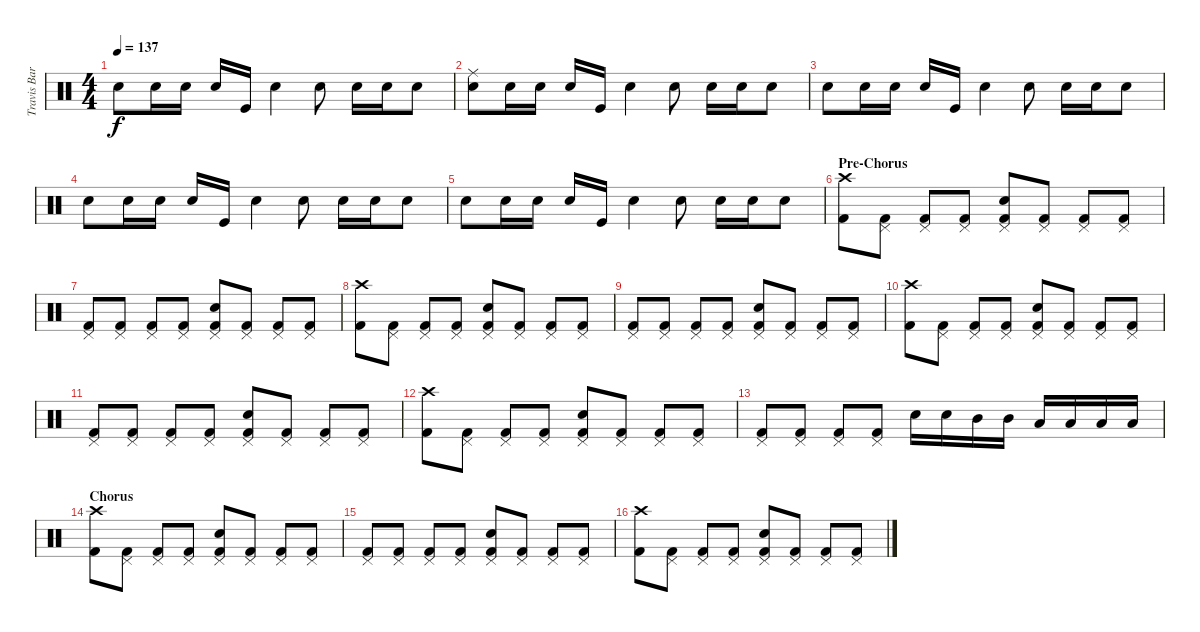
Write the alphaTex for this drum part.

\track ("Travis Barker" "Travis Bar") {instrument percussion}
\staff {score}
\articulation defaults
\ts (4 4)
\tempo 137
\clef neutral
\ks c "Snare (hit) 2".8{dy f} "Snare (hit) 2".16 "Snare (hit) 2".16 "Snare (hit) 2".16 "Kick (hit)".16 "Snare (hit) 2".4 "Snare (hit) 2".8 "Snare (hit) 2".16 "Snare (hit) 2".16 "Snare (hit) 2".8
|
("Ride (middle)" "Snare (hit) 2").8 "Snare (hit) 2".16 "Snare (hit) 2".16 "Snare (hit) 2".16 "Kick (hit)".16 "Snare (hit) 2".4 "Snare (hit) 2".8 "Snare (hit) 2".16 "Snare (hit) 2".16 "Snare (hit) 2".8 |
"Snare (hit) 2".8 "Snare (hit) 2".16 "Snare (hit) 2".16 "Snare (hit) 2".16 "Kick (hit)".16 "Snare (hit) 2".4 "Snare (hit) 2".8 "Snare (hit) 2".16 "Snare (hit) 2".16 "Snare (hit) 2".8 |
"Snare (hit) 2".8 "Snare (hit) 2".16 "Snare (hit) 2".16 "Snare (hit) 2".16 "Kick (hit)".16 "Snare (hit) 2".4 "Snare (hit) 2".8 "Snare (hit) 2".16 "Snare (hit) 2".16 "Snare (hit) 2".8 |
"Snare (hit) 2".8 "Snare (hit) 2".16 "Snare (hit) 2".16 "Snare (hit) 2".16 "Kick (hit)".16 "Snare (hit) 2".4 "Snare (hit) 2".8 "Snare (hit) 2".16 "Snare (hit) 2".16 "Snare (hit) 2".8 |
\section ("" "Pre-Chorus")
("Crash high (hit)" "Kick (hit) 2").8 ("Pedal Hi-Hat (hit)" "Kick (hit) 2").8 ("Pedal Hi-Hat (hit)" "Kick (hit) 2").8 ("Pedal Hi-Hat (hit)" "Kick (hit) 2").8 ("Pedal Hi-Hat (hit)" "Snare (hit) 2" "Kick (hit) 2").8 ("Pedal Hi-Hat (hit)" "Kick (hit) 2").8 ("Pedal Hi-Hat (hit)" "Kick (hit) 2").8 ("Pedal Hi-Hat (hit)" "Kick (hit) 2").8 |
("Pedal Hi-Hat (hit)" "Kick (hit) 2").8 ("Pedal Hi-Hat (hit)" "Kick (hit) 2").8 ("Pedal Hi-Hat (hit)" "Kick (hit) 2").8 ("Pedal Hi-Hat (hit)" "Kick (hit) 2").8 ("Pedal Hi-Hat (hit)" "Snare (hit) 2" "Kick (hit) 2").8 ("Pedal Hi-Hat (hit)" "Kick (hit) 2").8 ("Pedal Hi-Hat (hit)" "Kick (hit) 2").8 ("Pedal Hi-Hat (hit)" "Kick (hit) 2").8 |
("Crash high (hit)" "Kick (hit) 2").8 ("Pedal Hi-Hat (hit)" "Kick (hit) 2").8 ("Pedal Hi-Hat (hit)" "Kick (hit) 2").8 ("Pedal Hi-Hat (hit)" "Kick (hit) 2").8 ("Pedal Hi-Hat (hit)" "Snare (hit) 2" "Kick (hit) 2").8 ("Pedal Hi-Hat (hit)" "Kick (hit) 2").8 ("Pedal Hi-Hat (hit)" "Kick (hit) 2").8 ("Pedal Hi-Hat (hit)" "Kick (hit) 2").8 |
("Pedal Hi-Hat (hit)" "Kick (hit) 2").8 ("Pedal Hi-Hat (hit)" "Kick (hit) 2").8 ("Pedal Hi-Hat (hit)" "Kick (hit) 2").8 ("Pedal Hi-Hat (hit)" "Kick (hit) 2").8 ("Pedal Hi-Hat (hit)" "Snare (hit) 2" "Kick (hit) 2").8 ("Pedal Hi-Hat (hit)" "Kick (hit) 2").8 ("Pedal Hi-Hat (hit)" "Kick (hit) 2").8 ("Pedal Hi-Hat (hit)" "Kick (hit) 2").8 |
("Crash high (hit)" "Kick (hit) 2").8 ("Pedal Hi-Hat (hit)" "Kick (hit) 2").8 ("Pedal Hi-Hat (hit)" "Kick (hit) 2").8 ("Pedal Hi-Hat (hit)" "Kick (hit) 2").8 ("Pedal Hi-Hat (hit)" "Snare (hit) 2" "Kick (hit) 2").8 ("Pedal Hi-Hat (hit)" "Kick (hit) 2").8 ("Pedal Hi-Hat (hit)" "Kick (hit) 2").8 ("Pedal Hi-Hat (hit)" "Kick (hit) 2").8 |
("Pedal Hi-Hat (hit)" "Kick (hit) 2").8 ("Pedal Hi-Hat (hit)" "Kick (hit) 2").8 ("Pedal Hi-Hat (hit)" "Kick (hit) 2").8 ("Pedal Hi-Hat (hit)" "Kick (hit) 2").8 ("Pedal Hi-Hat (hit)" "Snare (hit) 2" "Kick (hit) 2").8 ("Pedal Hi-Hat (hit)" "Kick (hit) 2").8 ("Pedal Hi-Hat (hit)" "Kick (hit) 2").8 ("Pedal Hi-Hat (hit)" "Kick (hit) 2").8 |
("Crash high (hit)" "Kick (hit) 2").8 ("Pedal Hi-Hat (hit)" "Kick (hit) 2").8 ("Pedal Hi-Hat (hit)" "Kick (hit) 2").8 ("Pedal Hi-Hat (hit)" "Kick (hit) 2").8 ("Pedal Hi-Hat (hit)" "Snare (hit) 2" "Kick (hit) 2").8 ("Pedal Hi-Hat (hit)" "Kick (hit) 2").8 ("Pedal Hi-Hat (hit)" "Kick (hit) 2").8 ("Pedal Hi-Hat (hit)" "Kick (hit) 2").8 |
("Pedal Hi-Hat (hit)" "Kick (hit) 2").8 ("Pedal Hi-Hat (hit)" "Kick (hit) 2").8 ("Pedal Hi-Hat (hit)" "Kick (hit) 2").8 ("Pedal Hi-Hat (hit)" "Kick (hit) 2").8 "Snare (hit) 2".16 "Snare (hit) 2".16 "Mid Tom (hit)".16 "Mid Tom (hit)".16 "Low Tom (hit)".16 "Low Tom (hit)".16 "Low Tom (hit)".16 "Low Tom (hit)".16 |
\section ("" "Chorus")
("Crash high (hit)" "Kick (hit) 2").8 ("Pedal Hi-Hat (hit)" "Kick (hit) 2").8 ("Pedal Hi-Hat (hit)" "Kick (hit) 2").8 ("Pedal Hi-Hat (hit)" "Kick (hit) 2").8 ("Pedal Hi-Hat (hit)" "Snare (hit) 2" "Kick (hit) 2").8 ("Pedal Hi-Hat (hit)" "Kick (hit) 2").8 ("Pedal Hi-Hat (hit)" "Kick (hit) 2").8 ("Pedal Hi-Hat (hit)" "Kick (hit) 2").8 |
("Pedal Hi-Hat (hit)" "Kick (hit) 2").8 ("Pedal Hi-Hat (hit)" "Kick (hit) 2").8 ("Pedal Hi-Hat (hit)" "Kick (hit) 2").8 ("Pedal Hi-Hat (hit)" "Kick (hit) 2").8 ("Pedal Hi-Hat (hit)" "Snare (hit) 2" "Kick (hit) 2").8 ("Pedal Hi-Hat (hit)" "Kick (hit) 2").8 ("Pedal Hi-Hat (hit)" "Kick (hit) 2").8 ("Pedal Hi-Hat (hit)" "Kick (hit) 2").8 |
("Crash high (hit)" "Kick (hit) 2").8 ("Pedal Hi-Hat (hit)" "Kick (hit) 2").8 ("Pedal Hi-Hat (hit)" "Kick (hit) 2").8 ("Pedal Hi-Hat (hit)" "Kick (hit) 2").8 ("Pedal Hi-Hat (hit)" "Snare (hit) 2" "Kick (hit) 2").8 ("Pedal Hi-Hat (hit)" "Kick (hit) 2").8 ("Pedal Hi-Hat (hit)" "Kick (hit) 2").8 ("Pedal Hi-Hat (hit)" "Kick (hit) 2").8
